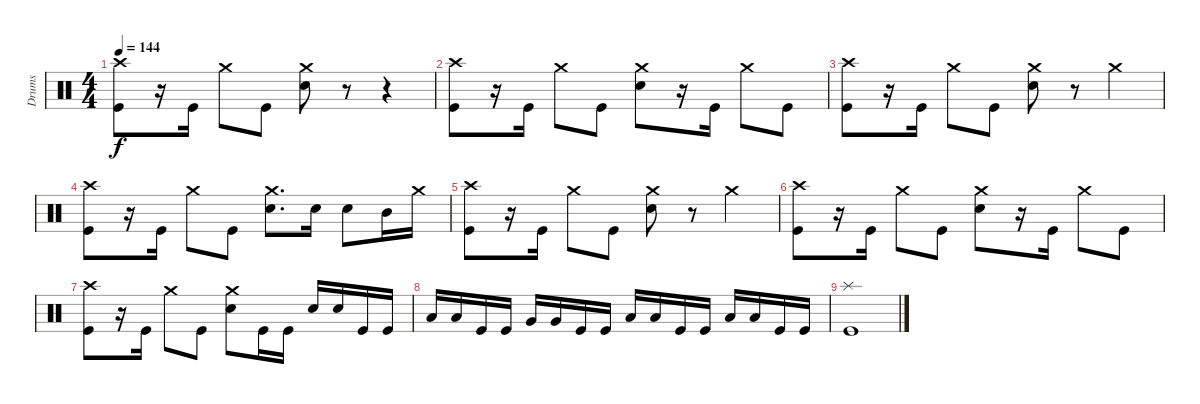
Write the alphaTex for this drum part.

\track ("Drums" "Drums") {instrument percussion}
\staff {score}
\articulation defaults
\ts (4 4)
\tempo 144
\clef neutral
\ks c
("Crash high (hit)" "Kick (hit)").8{dy f} r.16 "Kick (hit)".16 "Crash medium (hit)".8 "Kick (hit)".8 ("Crash medium (hit)" "Electric Snare (hit)").8 r.8 r.4 |
("Crash high (hit)" "Kick (hit)").8 r.16 "Kick (hit)".16 "Crash medium (hit)".8 "Kick (hit)".8 ("Crash medium (hit)" "Electric Snare (hit)").8 r.16 "Kick (hit)".16 "Crash medium (hit)".8 "Kick (hit)".8 |
("Crash high (hit)" "Kick (hit)").8 r.16 "Kick (hit)".16 "Crash medium (hit)".8 "Kick (hit)".8 ("Crash medium (hit)" "Electric Snare (hit)").8 r.8 "Crash medium (hit)".4 |
("Crash high (hit)" "Kick (hit)").8 r.16 "Kick (hit)".16 "Crash medium (hit)".8 "Kick (hit)".8 ("Crash medium (hit)" "Electric Snare (hit)").8{d} "Electric Snare (hit)".16 "Electric Snare (hit)".8 "Mid Tom (hit)".16 "Crash medium (hit)".16 |
("Crash high (hit)" "Kick (hit)").8 r.16 "Kick (hit)".16 "Crash medium (hit)".8 "Kick (hit)".8 ("Crash medium (hit)" "Electric Snare (hit)").8 r.8 "Crash medium (hit)".4 |
("Crash high (hit)" "Kick (hit)").8 r.16 "Kick (hit)".16 "Crash medium (hit)".8 "Kick (hit)".8 ("Crash medium (hit)" "Electric Snare (hit)").8 r.16 "Kick (hit)".16 "Crash medium (hit)".8 "Kick (hit)".8 |
("Crash high (hit)" "Kick (hit)").8 r.16 "Kick (hit)".16 "Crash medium (hit)".8 "Kick (hit)".8 ("Crash medium (hit)" "Electric Snare (hit)").8 "Kick (hit)".16 "Kick (hit)".16 "Electric Snare (hit)".16 "Electric Snare (hit)".16 "Kick (hit)".16 "Kick (hit)".16 |
"Low Tom (hit)".16 "Low Tom (hit)".16 "Kick (hit)".16 "Kick (hit)".16 "Very Low Tom (hit)".16 "Very Low Tom (hit)".16 "Kick (hit)".16 "Kick (hit)".16 "Low Floor Tom (hit)".16 "Low Floor Tom (hit)".16 "Kick (hit)".16 "Kick (hit)".16 "Low Floor Tom (hit)".16 "Low Floor Tom (hit)".16 "Kick (hit)".16 "Kick (hit)".16 |
("Splash (hit)" "Kick (hit)").1
